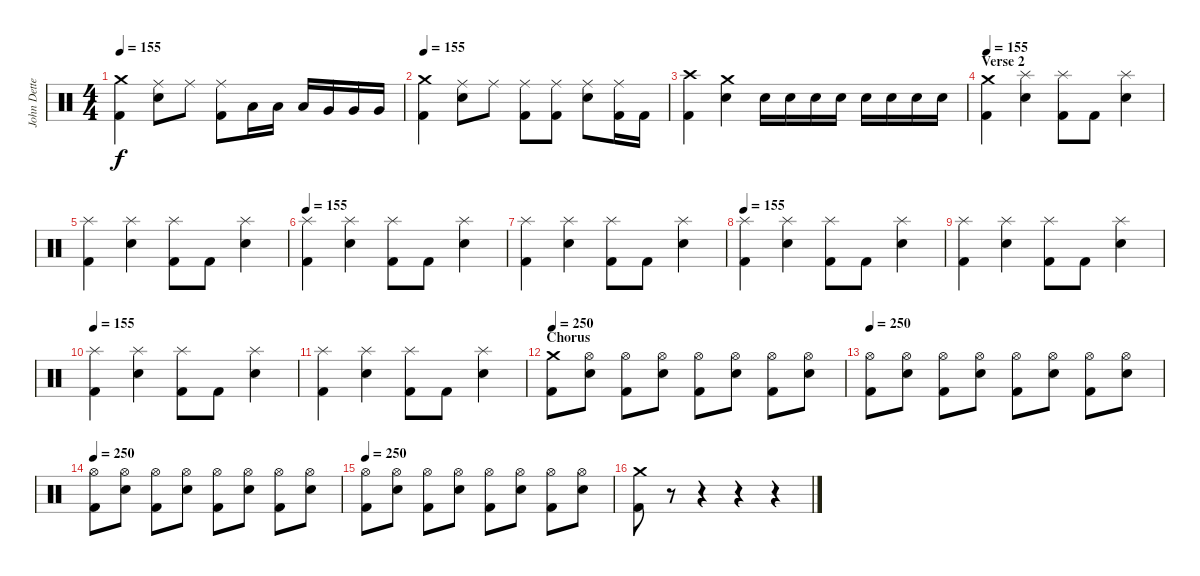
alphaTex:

\track ("John Dette" "John Dette") {instrument percussion}
\staff {score}
\articulation defaults
\ts (4 4)
\tempo 155
\clef neutral
\ks c
("Crash medium (hit)" "Kick (hit) 2").4{dy f} ("Ride (middle)" "Snare (hit) 2").8 "Ride (middle)".8 ("Ride (middle)" "Kick (hit) 2").8 "Low Tom (hit)".16 "Low Tom (hit)".16 "Low Tom (hit)".16 "Very Low Tom (hit)".16 "Very Low Tom (hit)".16 "Very Low Tom (hit)".16 |
\tempo 155
("Crash medium (hit)" "Kick (hit) 2").4 ("Ride (middle)" "Snare (hit) 2").8 "Ride (middle)".8 ("Ride (middle)" "Kick (hit) 2").8 ("Ride (middle)" "Kick (hit) 2").8 ("Ride (middle)" "Snare (hit) 2").8 ("Ride (middle)" "Kick (hit) 2").16 "Kick (hit) 2".16 |
("Crash high (hit)" "Kick (hit) 2").4 ("Crash medium (hit)" "Snare (hit) 2").4 "Snare (hit) 2".16 "Snare (hit) 2".16 "Snare (hit) 2".16 "Snare (hit) 2".16 "Snare (hit) 2".16 "Snare (hit) 2".16 "Snare (hit) 2".16 "Snare (hit) 2".16 |
\section ("" "Verse 2")
\tempo 155
("Crash medium (hit)" "Kick (hit) 2").4 ("Splash (hit)" "Snare (hit) 2").4 ("Splash (hit)" "Kick (hit) 2").8 "Kick (hit) 2".8 ("Splash (hit)" "Snare (hit) 2").4 |
("Splash (hit)" "Kick (hit) 2").4 ("Splash (hit)" "Snare (hit) 2").4 ("Splash (hit)" "Kick (hit) 2").8 "Kick (hit) 2".8 ("Splash (hit)" "Snare (hit) 2").4 |
\tempo 155
("Splash (hit)" "Kick (hit) 2").4 ("Splash (hit)" "Snare (hit) 2").4 ("Splash (hit)" "Kick (hit) 2").8 "Kick (hit) 2".8 ("Splash (hit)" "Snare (hit) 2").4 |
("Splash (hit)" "Kick (hit) 2").4 ("Splash (hit)" "Snare (hit) 2").4 ("Splash (hit)" "Kick (hit) 2").8 "Kick (hit) 2".8 ("Splash (hit)" "Snare (hit) 2").4 |
\tempo 155
("Splash (hit)" "Kick (hit) 2").4 ("Splash (hit)" "Snare (hit) 2").4 ("Splash (hit)" "Kick (hit) 2").8 "Kick (hit) 2".8 ("Splash (hit)" "Snare (hit) 2").4 |
("Splash (hit)" "Kick (hit) 2").4 ("Splash (hit)" "Snare (hit) 2").4 ("Splash (hit)" "Kick (hit) 2").8 "Kick (hit) 2".8 ("Splash (hit)" "Snare (hit) 2").4 |
\tempo 155
("Splash (hit)" "Kick (hit) 2").4 ("Splash (hit)" "Snare (hit) 2").4 ("Splash (hit)" "Kick (hit) 2").8 "Kick (hit) 2".8 ("Splash (hit)" "Snare (hit) 2").4 |
("Splash (hit)" "Kick (hit) 2").4 ("Splash (hit)" "Snare (hit) 2").4 ("Splash (hit)" "Kick (hit) 2").8 "Kick (hit) 2".8 ("Splash (hit)" "Snare (hit) 2").4 |
\section ("" "Chorus")
\tempo 250
("Crash medium (hit)" "Kick (hit) 2").8 ("Hi-Hat (open)" "Snare (hit) 2").8 ("Hi-Hat (open)" "Kick (hit) 2").8 ("Hi-Hat (open)" "Snare (hit) 2").8 ("Hi-Hat (open)" "Kick (hit) 2").8 ("Hi-Hat (open)" "Snare (hit) 2").8 ("Hi-Hat (open)" "Kick (hit) 2").8 ("Hi-Hat (open)" "Snare (hit) 2").8 |
\tempo 250
("Hi-Hat (open)" "Kick (hit) 2").8 ("Hi-Hat (open)" "Snare (hit) 2").8 ("Hi-Hat (open)" "Kick (hit) 2").8 ("Hi-Hat (open)" "Snare (hit) 2").8 ("Hi-Hat (open)" "Kick (hit) 2").8 ("Hi-Hat (open)" "Snare (hit) 2").8 ("Hi-Hat (open)" "Kick (hit) 2").8 ("Hi-Hat (open)" "Snare (hit) 2").8 |
\tempo 250
("Hi-Hat (open)" "Kick (hit) 2").8 ("Hi-Hat (open)" "Snare (hit) 2").8 ("Hi-Hat (open)" "Kick (hit) 2").8 ("Hi-Hat (open)" "Snare (hit) 2").8 ("Hi-Hat (open)" "Kick (hit) 2").8 ("Hi-Hat (open)" "Snare (hit) 2").8 ("Hi-Hat (open)" "Kick (hit) 2").8 ("Hi-Hat (open)" "Snare (hit) 2").8 |
\tempo 250
("Hi-Hat (open)" "Kick (hit) 2").8 ("Hi-Hat (open)" "Snare (hit) 2").8 ("Hi-Hat (open)" "Kick (hit) 2").8 ("Hi-Hat (open)" "Snare (hit) 2").8 ("Hi-Hat (open)" "Kick (hit) 2").8 ("Hi-Hat (open)" "Snare (hit) 2").8 ("Hi-Hat (open)" "Kick (hit) 2").8 ("Hi-Hat (open)" "Snare (hit) 2").8 |
("Crash medium (hit)" "Kick (hit) 2").8 r.8 r.4 r.4 r.4
